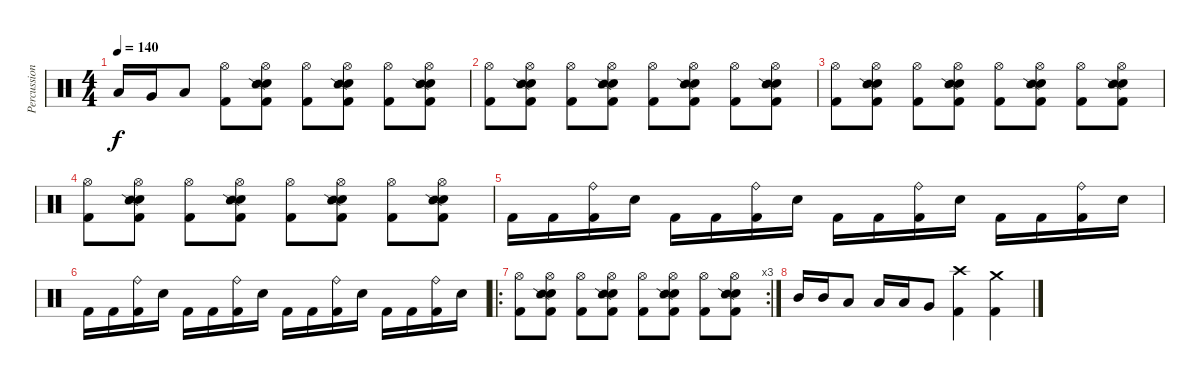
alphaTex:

\track ("Percussion" "Percussion") {instrument percussion}
\staff {score}
\articulation defaults
\ts (4 4)
\tempo 140
\clef neutral
\ks c "Low Tom (hit)".16{dy f} "Very Low Tom (hit)".16 "Low Floor Tom (hit)".8
("Hi-Hat (open)" "Kick (hit) 2").8 ("Hi-Hat (open)" "Electric Snare (hit)" "Snare (side stick) 2" "Kick (hit) 2").8 ("Hi-Hat (open)" "Kick (hit) 2").8 ("Hi-Hat (open)" "Electric Snare (hit)" "Snare (side stick) 2" "Kick (hit) 2").8 ("Hi-Hat (open)" "Kick (hit) 2").8 ("Hi-Hat (open)" "Electric Snare (hit)" "Snare (side stick) 2" "Kick (hit) 2").8 |
("Hi-Hat (open)" "Kick (hit) 2").8 ("Hi-Hat (open)" "Electric Snare (hit)" "Snare (side stick) 2" "Kick (hit) 2").8 ("Hi-Hat (open)" "Kick (hit) 2").8 ("Hi-Hat (open)" "Electric Snare (hit)" "Snare (side stick) 2" "Kick (hit) 2").8 ("Hi-Hat (open)" "Kick (hit) 2").8 ("Hi-Hat (open)" "Electric Snare (hit)" "Snare (side stick) 2" "Kick (hit) 2").8 ("Hi-Hat (open)" "Kick (hit) 2").8 ("Hi-Hat (open)" "Electric Snare (hit)" "Snare (side stick) 2" "Kick (hit) 2").8 |
("Hi-Hat (open)" "Kick (hit) 2").8 ("Hi-Hat (open)" "Electric Snare (hit)" "Snare (side stick) 2" "Kick (hit) 2").8 ("Hi-Hat (open)" "Kick (hit) 2").8 ("Hi-Hat (open)" "Electric Snare (hit)" "Snare (side stick) 2" "Kick (hit) 2").8 ("Hi-Hat (open)" "Kick (hit) 2").8 ("Hi-Hat (open)" "Electric Snare (hit)" "Snare (side stick) 2" "Kick (hit) 2").8 ("Hi-Hat (open)" "Kick (hit) 2").8 ("Hi-Hat (open)" "Electric Snare (hit)" "Snare (side stick) 2" "Kick (hit) 2").8 |
("Hi-Hat (open)" "Kick (hit) 2").8 ("Hi-Hat (open)" "Electric Snare (hit)" "Snare (side stick) 2" "Kick (hit) 2").8 ("Hi-Hat (open)" "Kick (hit) 2").8 ("Hi-Hat (open)" "Electric Snare (hit)" "Snare (side stick) 2" "Kick (hit) 2").8 ("Hi-Hat (open)" "Kick (hit) 2").8 ("Hi-Hat (open)" "Electric Snare (hit)" "Snare (side stick) 2" "Kick (hit) 2").8 ("Hi-Hat (open)" "Kick (hit) 2").8 ("Hi-Hat (open)" "Electric Snare (hit)" "Snare (side stick) 2" "Kick (hit) 2").8 |
"Kick (hit) 2".16 "Kick (hit) 2".16 ("Ride (bell)" "Kick (hit) 2").16 "Electric Snare (hit)".16 "Kick (hit) 2".16 "Kick (hit) 2".16 ("Ride (bell)" "Kick (hit) 2").16 "Electric Snare (hit)".16 "Kick (hit) 2".16 "Kick (hit) 2".16 ("Ride (bell)" "Kick (hit) 2").16 "Electric Snare (hit)".16 "Kick (hit) 2".16 "Kick (hit) 2".16 ("Ride (bell)" "Kick (hit) 2").16 "Electric Snare (hit)".16 |
"Kick (hit) 2".16 "Kick (hit) 2".16 ("Ride (bell)" "Kick (hit) 2").16 "Electric Snare (hit)".16 "Kick (hit) 2".16 "Kick (hit) 2".16 ("Ride (bell)" "Kick (hit) 2").16 "Electric Snare (hit)".16 "Kick (hit) 2".16 "Kick (hit) 2".16 ("Ride (bell)" "Kick (hit) 2").16 "Electric Snare (hit)".16 "Kick (hit) 2".16 "Kick (hit) 2".16 ("Ride (bell)" "Kick (hit) 2").16 "Electric Snare (hit)".16 |
\ro
\rc 3
("Hi-Hat (open)" "Kick (hit) 2").8 ("Hi-Hat (open)" "Electric Snare (hit)" "Snare (side stick) 2" "Kick (hit) 2").8 ("Hi-Hat (open)" "Kick (hit) 2").8 ("Hi-Hat (open)" "Electric Snare (hit)" "Snare (side stick) 2" "Kick (hit) 2").8 ("Hi-Hat (open)" "Kick (hit) 2").8 ("Hi-Hat (open)" "Electric Snare (hit)" "Snare (side stick) 2" "Kick (hit) 2").8 ("Hi-Hat (open)" "Kick (hit) 2").8 ("Hi-Hat (open)" "Electric Snare (hit)" "Snare (side stick) 2" "Kick (hit) 2").8 |
"Mid Tom (hit)".16 "Mid Tom (hit)".16 "Low Tom (hit)".8 "Low Tom (hit)".16 "Low Tom (hit)".16 "Very Low Tom (hit)".8 ("Crash high (hit)" "Kick (hit) 2").4 ("Crash medium (hit)" "Kick (hit) 2").4
